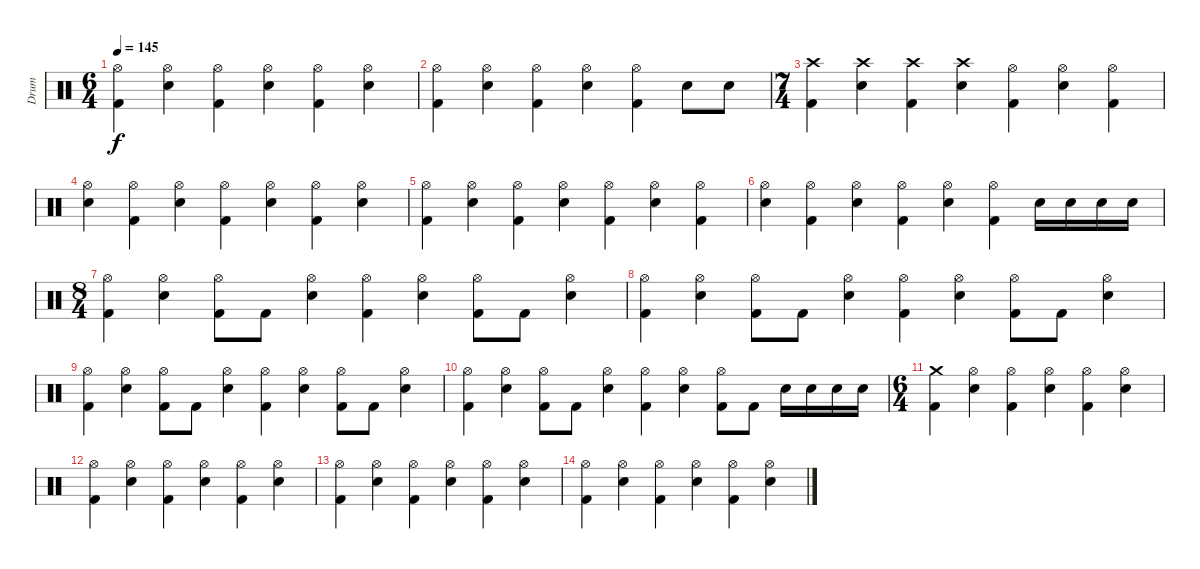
\track ("Drum" "Drum") {instrument percussion}
\staff {score}
\articulation defaults
\ts (6 4)
\tempo 145
\clef neutral
\ks c
("Hi-Hat (open)" "Kick (hit) 2").4{dy f} ("Hi-Hat (open)" "Snare (hit) 2").4 ("Hi-Hat (open)" "Kick (hit) 2").4 ("Hi-Hat (open)" "Snare (hit) 2").4 ("Hi-Hat (open)" "Kick (hit) 2").4 ("Hi-Hat (open)" "Snare (hit) 2").4 |
("Hi-Hat (open)" "Kick (hit) 2").4 ("Hi-Hat (open)" "Snare (hit) 2").4 ("Hi-Hat (open)" "Kick (hit) 2").4 ("Hi-Hat (open)" "Snare (hit) 2").4 ("Hi-Hat (open)" "Kick (hit) 2").4 "Snare (hit) 2".8 "Snare (hit) 2".8 |
\ts (7 4)
("Crash high (hit)" "Kick (hit) 2").4 ("Crash high (hit)" "Snare (hit) 2").4 ("Crash high (hit)" "Kick (hit) 2").4 ("Crash high (hit)" "Snare (hit) 2").4 ("Hi-Hat (open)" "Kick (hit) 2").4 ("Hi-Hat (open)" "Snare (hit) 2").4 ("Hi-Hat (open)" "Kick (hit) 2").4 |
("Hi-Hat (open)" "Snare (hit) 2").4 ("Hi-Hat (open)" "Kick (hit) 2").4 ("Hi-Hat (open)" "Snare (hit) 2").4 ("Hi-Hat (open)" "Kick (hit) 2").4 ("Hi-Hat (open)" "Snare (hit) 2").4 ("Hi-Hat (open)" "Kick (hit) 2").4 ("Hi-Hat (open)" "Snare (hit) 2").4 |
("Hi-Hat (open)" "Kick (hit) 2").4 ("Hi-Hat (open)" "Snare (hit) 2").4 ("Hi-Hat (open)" "Kick (hit) 2").4 ("Hi-Hat (open)" "Snare (hit) 2").4 ("Hi-Hat (open)" "Kick (hit) 2").4 ("Hi-Hat (open)" "Snare (hit) 2").4 ("Hi-Hat (open)" "Kick (hit) 2").4 |
("Hi-Hat (open)" "Snare (hit) 2").4 ("Hi-Hat (open)" "Kick (hit) 2").4 ("Hi-Hat (open)" "Snare (hit) 2").4 ("Hi-Hat (open)" "Kick (hit) 2").4 ("Hi-Hat (open)" "Snare (hit) 2").4 ("Hi-Hat (open)" "Kick (hit) 2").4 "Snare (hit) 2".16 "Snare (hit) 2".16 "Snare (hit) 2".16 "Snare (hit) 2".16 |
\ts (8 4)
("Hi-Hat (open)" "Kick (hit) 2").4 ("Hi-Hat (open)" "Snare (hit) 2").4 ("Hi-Hat (open)" "Kick (hit) 2").8 "Kick (hit) 2".8 ("Hi-Hat (open)" "Snare (hit) 2").4 ("Hi-Hat (open)" "Kick (hit) 2").4 ("Hi-Hat (open)" "Snare (hit) 2").4 ("Hi-Hat (open)" "Kick (hit) 2").8 "Kick (hit) 2".8 ("Hi-Hat (open)" "Snare (hit) 2").4 |
("Hi-Hat (open)" "Kick (hit) 2").4 ("Hi-Hat (open)" "Snare (hit) 2").4 ("Hi-Hat (open)" "Kick (hit) 2").8 "Kick (hit) 2".8 ("Hi-Hat (open)" "Snare (hit) 2").4 ("Hi-Hat (open)" "Kick (hit) 2").4 ("Hi-Hat (open)" "Snare (hit) 2").4 ("Hi-Hat (open)" "Kick (hit) 2").8 "Kick (hit) 2".8 ("Hi-Hat (open)" "Snare (hit) 2").4 |
("Hi-Hat (open)" "Kick (hit) 2").4 ("Hi-Hat (open)" "Snare (hit) 2").4 ("Hi-Hat (open)" "Kick (hit) 2").8 "Kick (hit) 2".8 ("Hi-Hat (open)" "Snare (hit) 2").4 ("Hi-Hat (open)" "Kick (hit) 2").4 ("Hi-Hat (open)" "Snare (hit) 2").4 ("Hi-Hat (open)" "Kick (hit) 2").8 "Kick (hit) 2".8 ("Hi-Hat (open)" "Snare (hit) 2").4 |
("Hi-Hat (open)" "Kick (hit) 2").4 ("Hi-Hat (open)" "Snare (hit) 2").4 ("Hi-Hat (open)" "Kick (hit) 2").8 "Kick (hit) 2".8 ("Hi-Hat (open)" "Snare (hit) 2").4 ("Hi-Hat (open)" "Kick (hit) 2").4 ("Hi-Hat (open)" "Snare (hit) 2").4 ("Hi-Hat (open)" "Kick (hit) 2").8 "Kick (hit) 2".8 "Snare (hit) 2".16 "Snare (hit) 2".16 "Snare (hit) 2".16 "Snare (hit) 2".16 |
\ts (6 4)
("Crash medium (hit)" "Kick (hit) 2").4 ("Hi-Hat (open)" "Snare (hit) 2").4 ("Hi-Hat (open)" "Kick (hit) 2").4 ("Hi-Hat (open)" "Snare (hit) 2").4 ("Hi-Hat (open)" "Kick (hit) 2").4 ("Hi-Hat (open)" "Snare (hit) 2").4 |
("Hi-Hat (open)" "Kick (hit) 2").4 ("Hi-Hat (open)" "Snare (hit) 2").4 ("Hi-Hat (open)" "Kick (hit) 2").4 ("Hi-Hat (open)" "Snare (hit) 2").4 ("Hi-Hat (open)" "Kick (hit) 2").4 ("Hi-Hat (open)" "Snare (hit) 2").4 |
("Hi-Hat (open)" "Kick (hit) 2").4 ("Hi-Hat (open)" "Snare (hit) 2").4 ("Hi-Hat (open)" "Kick (hit) 2").4 ("Hi-Hat (open)" "Snare (hit) 2").4 ("Hi-Hat (open)" "Kick (hit) 2").4 ("Hi-Hat (open)" "Snare (hit) 2").4 |
("Hi-Hat (open)" "Kick (hit) 2").4 ("Hi-Hat (open)" "Snare (hit) 2").4 ("Hi-Hat (open)" "Kick (hit) 2").4 ("Hi-Hat (open)" "Snare (hit) 2").4 ("Hi-Hat (open)" "Kick (hit) 2").4 ("Hi-Hat (open)" "Snare (hit) 2").4
